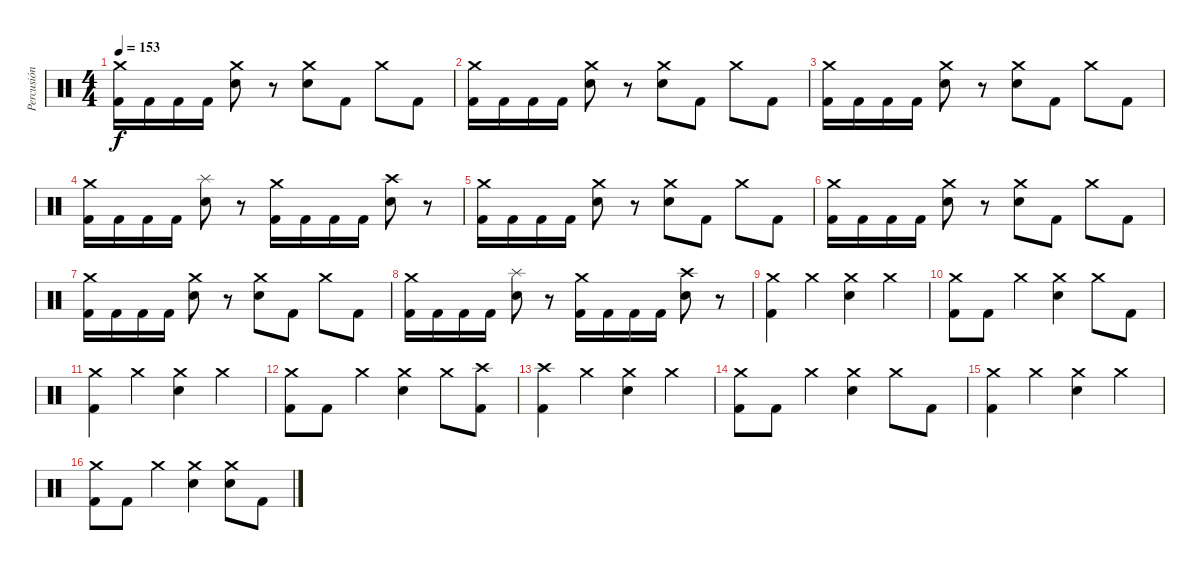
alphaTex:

\track ("Percusión" "Percusión") {instrument percussion}
\staff {score}
\articulation defaults
\ts (4 4)
\tempo 153
\clef neutral
\ks c
("Crash medium (hit)" "Kick (hit) 2").16{dy f} "Kick (hit) 2".16 "Kick (hit) 2".16 "Kick (hit) 2".16 ("Crash medium (hit)" "Electric Snare (hit)").8 r.8 ("Crash medium (hit)" "Electric Snare (hit)").8 "Kick (hit) 2".8 "Crash medium (hit)".8 "Kick (hit) 2".8 |
("Crash medium (hit)" "Kick (hit) 2").16 "Kick (hit) 2".16 "Kick (hit) 2".16 "Kick (hit) 2".16 ("Crash medium (hit)" "Electric Snare (hit)").8 r.8 ("Crash medium (hit)" "Electric Snare (hit)").8 "Kick (hit) 2".8 "Crash medium (hit)".8 "Kick (hit) 2".8 |
("Crash medium (hit)" "Kick (hit) 2").16 "Kick (hit) 2".16 "Kick (hit) 2".16 "Kick (hit) 2".16 ("Crash medium (hit)" "Electric Snare (hit)").8 r.8 ("Crash medium (hit)" "Electric Snare (hit)").8 "Kick (hit) 2".8 "Crash medium (hit)".8 "Kick (hit) 2".8 |
("Crash medium (hit)" "Kick (hit) 2").16 "Kick (hit) 2".16 "Kick (hit) 2".16 "Kick (hit) 2".16 ("Splash (hit)" "Electric Snare (hit)").8 r.8 ("Crash medium (hit)" "Kick (hit) 2").16 "Kick (hit) 2".16 "Kick (hit) 2".16 "Kick (hit) 2".16 ("Crash high (hit)" "Electric Snare (hit)").8 r.8 |
("Crash medium (hit)" "Kick (hit) 2").16 "Kick (hit) 2".16 "Kick (hit) 2".16 "Kick (hit) 2".16 ("Crash medium (hit)" "Electric Snare (hit)").8 r.8 ("Crash medium (hit)" "Electric Snare (hit)").8 "Kick (hit) 2".8 "Crash medium (hit)".8 "Kick (hit) 2".8 |
("Crash medium (hit)" "Kick (hit) 2").16 "Kick (hit) 2".16 "Kick (hit) 2".16 "Kick (hit) 2".16 ("Crash medium (hit)" "Electric Snare (hit)").8 r.8 ("Crash medium (hit)" "Electric Snare (hit)").8 "Kick (hit) 2".8 "Crash medium (hit)".8 "Kick (hit) 2".8 |
("Crash medium (hit)" "Kick (hit) 2").16 "Kick (hit) 2".16 "Kick (hit) 2".16 "Kick (hit) 2".16 ("Crash medium (hit)" "Electric Snare (hit)").8 r.8 ("Crash medium (hit)" "Electric Snare (hit)").8 "Kick (hit) 2".8 "Crash medium (hit)".8 "Kick (hit) 2".8 |
("Crash medium (hit)" "Kick (hit) 2").16 "Kick (hit) 2".16 "Kick (hit) 2".16 "Kick (hit) 2".16 ("Splash (hit)" "Electric Snare (hit)").8 r.8 ("Crash medium (hit)" "Kick (hit) 2").16 "Kick (hit) 2".16 "Kick (hit) 2".16 "Kick (hit) 2".16 ("Crash high (hit)" "Electric Snare (hit)").8 r.8 |
("Crash medium (hit)" "Kick (hit) 2").4 "Crash medium (hit)".4 ("Crash medium (hit)" "Electric Snare (hit)").4 "Crash medium (hit)".4 |
("Crash medium (hit)" "Kick (hit) 2").8 "Kick (hit) 2".8 "Crash medium (hit)".4 ("Crash medium (hit)" "Electric Snare (hit)").4 "Crash medium (hit)".8 "Kick (hit) 2".8 |
("Crash medium (hit)" "Kick (hit) 2").4 "Crash medium (hit)".4 ("Crash medium (hit)" "Electric Snare (hit)").4 "Crash medium (hit)".4 |
("Crash medium (hit)" "Kick (hit) 2").8 "Kick (hit) 2".8 "Crash medium (hit)".4 ("Crash medium (hit)" "Electric Snare (hit)").4 "Crash medium (hit)".8 ("Crash high (hit)" "Kick (hit) 2").8 |
("Crash high (hit)" "Kick (hit) 2").4 "Crash medium (hit)".4 ("Crash medium (hit)" "Electric Snare (hit)").4 "Crash medium (hit)".4 |
("Crash medium (hit)" "Kick (hit) 2").8 "Kick (hit) 2".8 "Crash medium (hit)".4 ("Crash medium (hit)" "Electric Snare (hit)").4 "Crash medium (hit)".8 "Kick (hit) 2".8 |
("Crash medium (hit)" "Kick (hit) 2").4 "Crash medium (hit)".4 ("Crash medium (hit)" "Electric Snare (hit)").4 "Crash medium (hit)".4 |
("Crash medium (hit)" "Kick (hit) 2").8 "Kick (hit) 2".8 "Crash medium (hit)".4 ("Crash medium (hit)" "Electric Snare (hit)").4 ("Crash medium (hit)" "Electric Snare (hit)").8 "Kick (hit) 2".8
